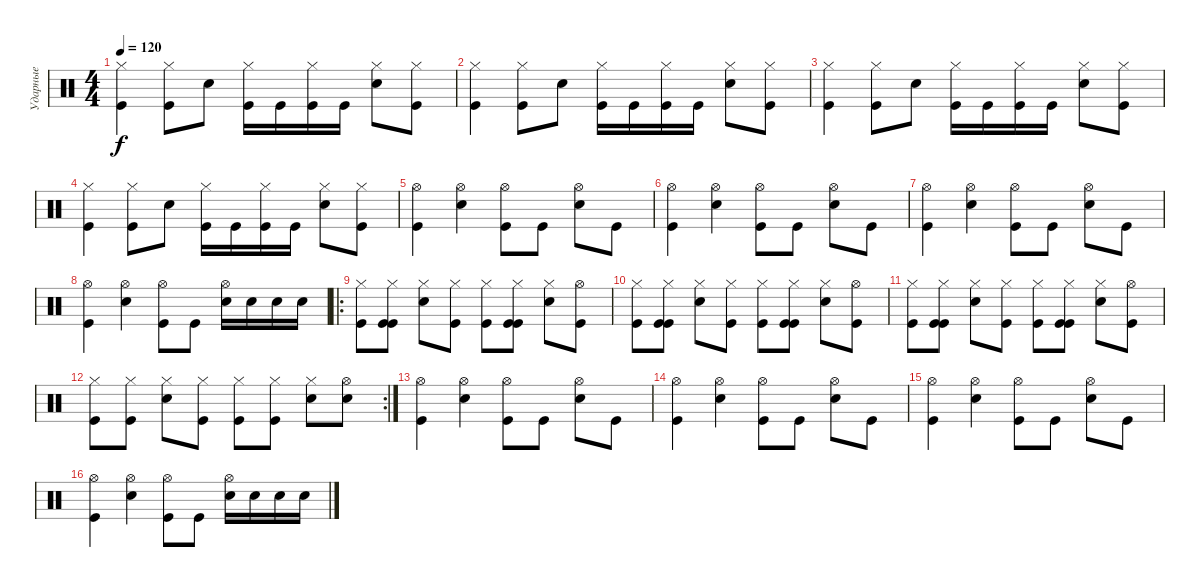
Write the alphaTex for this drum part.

\track ("Ударные" "Ударные") {instrument percussion}
\staff {score}
\articulation defaults
\ts (4 4)
\tempo 120
\clef neutral
\ks c
("Kick (hit)" "Hi-Hat (closed)").4{dy f} ("Kick (hit)" "Hi-Hat (closed)").8 "Electric Snare (hit)".8 ("Kick (hit)" "Hi-Hat (closed)").16 "Kick (hit)".16 ("Kick (hit)" "Hi-Hat (closed)").16 "Kick (hit)".16 ("Electric Snare (hit)" "Hi-Hat (closed)").8 ("Kick (hit)" "Hi-Hat (closed)").8 |
("Kick (hit)" "Hi-Hat (closed)").4 ("Kick (hit)" "Hi-Hat (closed)").8 "Electric Snare (hit)".8 ("Kick (hit)" "Hi-Hat (closed)").16 "Kick (hit)".16 ("Kick (hit)" "Hi-Hat (closed)").16 "Kick (hit)".16 ("Electric Snare (hit)" "Hi-Hat (closed)").8 ("Kick (hit)" "Hi-Hat (closed)").8 |
("Kick (hit)" "Hi-Hat (closed)").4 ("Kick (hit)" "Hi-Hat (closed)").8 "Electric Snare (hit)".8 ("Kick (hit)" "Hi-Hat (closed)").16 "Kick (hit)".16 ("Kick (hit)" "Hi-Hat (closed)").16 "Kick (hit)".16 ("Electric Snare (hit)" "Hi-Hat (closed)").8 ("Kick (hit)" "Hi-Hat (closed)").8 |
("Kick (hit)" "Hi-Hat (closed)").4 ("Kick (hit)" "Hi-Hat (closed)").8 "Electric Snare (hit)".8 ("Kick (hit)" "Hi-Hat (closed)").16 "Kick (hit)".16 ("Kick (hit)" "Hi-Hat (closed)").16 "Kick (hit)".16 ("Electric Snare (hit)" "Hi-Hat (closed)").8 ("Kick (hit)" "Hi-Hat (closed)").8 |
("Kick (hit)" "Hi-Hat (open)").4 ("Electric Snare (hit)" "Hi-Hat (open)").4 ("Kick (hit)" "Hi-Hat (open)").8 "Kick (hit)".8 ("Electric Snare (hit)" "Hi-Hat (open)").8 "Kick (hit)".8 |
("Kick (hit)" "Hi-Hat (open)").4 ("Electric Snare (hit)" "Hi-Hat (open)").4 ("Kick (hit)" "Hi-Hat (open)").8 "Kick (hit)".8 ("Electric Snare (hit)" "Hi-Hat (open)").8 "Kick (hit)".8 |
("Kick (hit)" "Hi-Hat (open)").4 ("Electric Snare (hit)" "Hi-Hat (open)").4 ("Kick (hit)" "Hi-Hat (open)").8 "Kick (hit)".8 ("Electric Snare (hit)" "Hi-Hat (open)").8 "Kick (hit)".8 |
("Kick (hit)" "Hi-Hat (open)").4 ("Electric Snare (hit)" "Hi-Hat (open)").4 ("Kick (hit)" "Hi-Hat (open)").8 "Kick (hit)".8 ("Electric Snare (hit)" "Hi-Hat (open)").16 "Electric Snare (hit)".16 "Electric Snare (hit)".16 "Electric Snare (hit)".16 |
\ro
("Kick (hit)" "Hi-Hat (closed)").8 ("Kick (hit)" "Kick (hit)" "Hi-Hat (closed)").8 ("Electric Snare (hit)" "Hi-Hat (closed)").8 ("Kick (hit)" "Hi-Hat (closed)").8 ("Kick (hit)" "Hi-Hat (closed)").8 ("Kick (hit)" "Kick (hit)" "Hi-Hat (closed)").8 ("Electric Snare (hit)" "Hi-Hat (closed)").8 ("Kick (hit)" "Hi-Hat (open)").8 |
("Kick (hit)" "Hi-Hat (closed)").8 ("Kick (hit)" "Kick (hit)" "Hi-Hat (closed)").8 ("Electric Snare (hit)" "Hi-Hat (closed)").8 ("Kick (hit)" "Hi-Hat (closed)").8 ("Kick (hit)" "Hi-Hat (closed)").8 ("Kick (hit)" "Kick (hit)" "Hi-Hat (closed)").8 ("Electric Snare (hit)" "Hi-Hat (closed)").8 ("Kick (hit)" "Hi-Hat (open)").8 |
("Kick (hit)" "Hi-Hat (closed)").8 ("Kick (hit)" "Kick (hit)" "Hi-Hat (closed)").8 ("Electric Snare (hit)" "Hi-Hat (closed)").8 ("Kick (hit)" "Hi-Hat (closed)").8 ("Kick (hit)" "Hi-Hat (closed)").8 ("Kick (hit)" "Kick (hit)" "Hi-Hat (closed)").8 ("Electric Snare (hit)" "Hi-Hat (closed)").8 ("Kick (hit)" "Hi-Hat (open)").8 |
\rc 2
("Kick (hit)" "Hi-Hat (closed)").8 ("Kick (hit)" "Hi-Hat (closed)").8 ("Electric Snare (hit)" "Hi-Hat (closed)").8 ("Kick (hit)" "Hi-Hat (closed)").8 ("Kick (hit)" "Hi-Hat (closed)").8 ("Kick (hit)" "Hi-Hat (closed)").8 ("Electric Snare (hit)" "Hi-Hat (closed)").8 ("Electric Snare (hit)" "Hi-Hat (open)").8 |
("Kick (hit)" "Hi-Hat (open)").4 ("Electric Snare (hit)" "Hi-Hat (open)").4 ("Kick (hit)" "Hi-Hat (open)").8 "Kick (hit)".8 ("Electric Snare (hit)" "Hi-Hat (open)").8 "Kick (hit)".8 |
("Kick (hit)" "Hi-Hat (open)").4 ("Electric Snare (hit)" "Hi-Hat (open)").4 ("Kick (hit)" "Hi-Hat (open)").8 "Kick (hit)".8 ("Electric Snare (hit)" "Hi-Hat (open)").8 "Kick (hit)".8 |
("Kick (hit)" "Hi-Hat (open)").4 ("Electric Snare (hit)" "Hi-Hat (open)").4 ("Kick (hit)" "Hi-Hat (open)").8 "Kick (hit)".8 ("Electric Snare (hit)" "Hi-Hat (open)").8 "Kick (hit)".8 |
("Kick (hit)" "Hi-Hat (open)").4 ("Electric Snare (hit)" "Hi-Hat (open)").4 ("Kick (hit)" "Hi-Hat (open)").8 "Kick (hit)".8 ("Electric Snare (hit)" "Hi-Hat (open)").16 "Electric Snare (hit)".16 "Electric Snare (hit)".16 "Electric Snare (hit)".16
